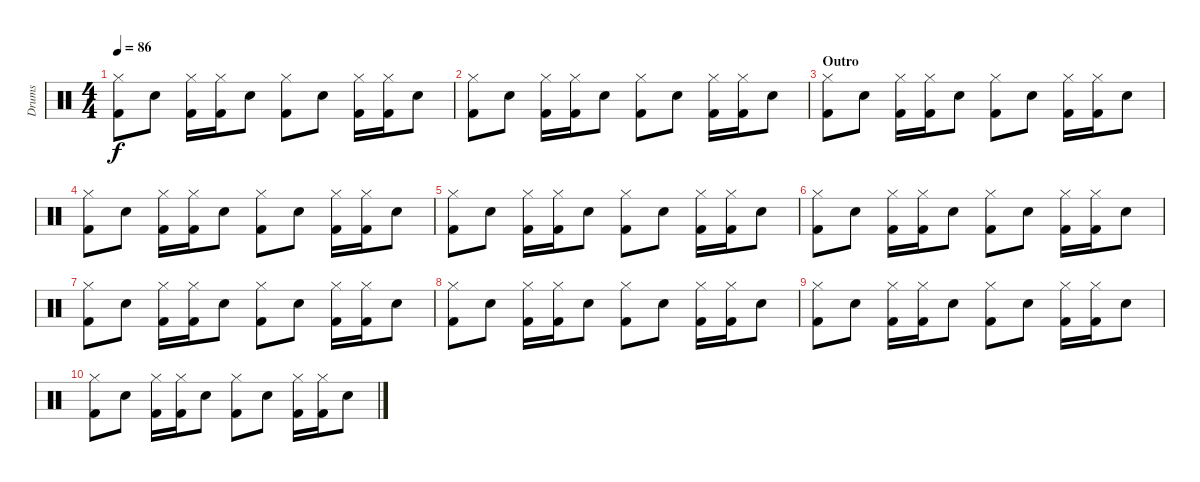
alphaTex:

\track ("Drums" "Drums") {instrument percussion}
\staff {score}
\articulation defaults
\ts (4 4)
\tempo 86
\clef neutral
\ks c
("Hi-Hat (closed)" "Kick (hit) 2").8{dy f} "Electric Snare (hit)".8 ("Hi-Hat (closed)" "Kick (hit) 2").16 ("Hi-Hat (closed)" "Kick (hit) 2").16 "Electric Snare (hit)".8 ("Hi-Hat (closed)" "Kick (hit) 2").8 "Electric Snare (hit)".8 ("Hi-Hat (closed)" "Kick (hit) 2").16 ("Hi-Hat (closed)" "Kick (hit) 2").16 "Electric Snare (hit)".8 |
("Hi-Hat (closed)" "Kick (hit) 2").8 "Electric Snare (hit)".8 ("Hi-Hat (closed)" "Kick (hit) 2").16 ("Hi-Hat (closed)" "Kick (hit) 2").16 "Electric Snare (hit)".8 ("Hi-Hat (closed)" "Kick (hit) 2").8 "Electric Snare (hit)".8 ("Hi-Hat (closed)" "Kick (hit) 2").16 ("Hi-Hat (closed)" "Kick (hit) 2").16 "Electric Snare (hit)".8 |
\section ("" "Outro")
("Hi-Hat (closed)" "Kick (hit) 2").8 "Electric Snare (hit)".8 ("Hi-Hat (closed)" "Kick (hit) 2").16 ("Hi-Hat (closed)" "Kick (hit) 2").16 "Electric Snare (hit)".8 ("Hi-Hat (closed)" "Kick (hit) 2").8 "Electric Snare (hit)".8 ("Hi-Hat (closed)" "Kick (hit) 2").16 ("Hi-Hat (closed)" "Kick (hit) 2").16 "Electric Snare (hit)".8 |
("Hi-Hat (closed)" "Kick (hit) 2").8 "Electric Snare (hit)".8 ("Hi-Hat (closed)" "Kick (hit) 2").16 ("Hi-Hat (closed)" "Kick (hit) 2").16 "Electric Snare (hit)".8 ("Hi-Hat (closed)" "Kick (hit) 2").8 "Electric Snare (hit)".8 ("Hi-Hat (closed)" "Kick (hit) 2").16 ("Hi-Hat (closed)" "Kick (hit) 2").16 "Electric Snare (hit)".8 |
("Hi-Hat (closed)" "Kick (hit) 2").8 "Electric Snare (hit)".8 ("Hi-Hat (closed)" "Kick (hit) 2").16 ("Hi-Hat (closed)" "Kick (hit) 2").16 "Electric Snare (hit)".8 ("Hi-Hat (closed)" "Kick (hit) 2").8 "Electric Snare (hit)".8 ("Hi-Hat (closed)" "Kick (hit) 2").16 ("Hi-Hat (closed)" "Kick (hit) 2").16 "Electric Snare (hit)".8 |
("Hi-Hat (closed)" "Kick (hit) 2").8 "Electric Snare (hit)".8 ("Hi-Hat (closed)" "Kick (hit) 2").16 ("Hi-Hat (closed)" "Kick (hit) 2").16 "Electric Snare (hit)".8 ("Hi-Hat (closed)" "Kick (hit) 2").8 "Electric Snare (hit)".8 ("Hi-Hat (closed)" "Kick (hit) 2").16 ("Hi-Hat (closed)" "Kick (hit) 2").16 "Electric Snare (hit)".8 |
("Hi-Hat (closed)" "Kick (hit) 2").8 "Electric Snare (hit)".8 ("Hi-Hat (closed)" "Kick (hit) 2").16 ("Hi-Hat (closed)" "Kick (hit) 2").16 "Electric Snare (hit)".8 ("Hi-Hat (closed)" "Kick (hit) 2").8 "Electric Snare (hit)".8 ("Hi-Hat (closed)" "Kick (hit) 2").16 ("Hi-Hat (closed)" "Kick (hit) 2").16 "Electric Snare (hit)".8 |
("Hi-Hat (closed)" "Kick (hit) 2").8 "Electric Snare (hit)".8 ("Hi-Hat (closed)" "Kick (hit) 2").16 ("Hi-Hat (closed)" "Kick (hit) 2").16 "Electric Snare (hit)".8 ("Hi-Hat (closed)" "Kick (hit) 2").8 "Electric Snare (hit)".8 ("Hi-Hat (closed)" "Kick (hit) 2").16 ("Hi-Hat (closed)" "Kick (hit) 2").16 "Electric Snare (hit)".8 |
("Hi-Hat (closed)" "Kick (hit) 2").8 "Electric Snare (hit)".8 ("Hi-Hat (closed)" "Kick (hit) 2").16 ("Hi-Hat (closed)" "Kick (hit) 2").16 "Electric Snare (hit)".8 ("Hi-Hat (closed)" "Kick (hit) 2").8 "Electric Snare (hit)".8 ("Hi-Hat (closed)" "Kick (hit) 2").16 ("Hi-Hat (closed)" "Kick (hit) 2").16 "Electric Snare (hit)".8 |
("Hi-Hat (closed)" "Kick (hit) 2").8 "Electric Snare (hit)".8 ("Hi-Hat (closed)" "Kick (hit) 2").16 ("Hi-Hat (closed)" "Kick (hit) 2").16 "Electric Snare (hit)".8 ("Hi-Hat (closed)" "Kick (hit) 2").8 "Electric Snare (hit)".8 ("Hi-Hat (closed)" "Kick (hit) 2").16 ("Hi-Hat (closed)" "Kick (hit) 2").16 "Electric Snare (hit)".8
